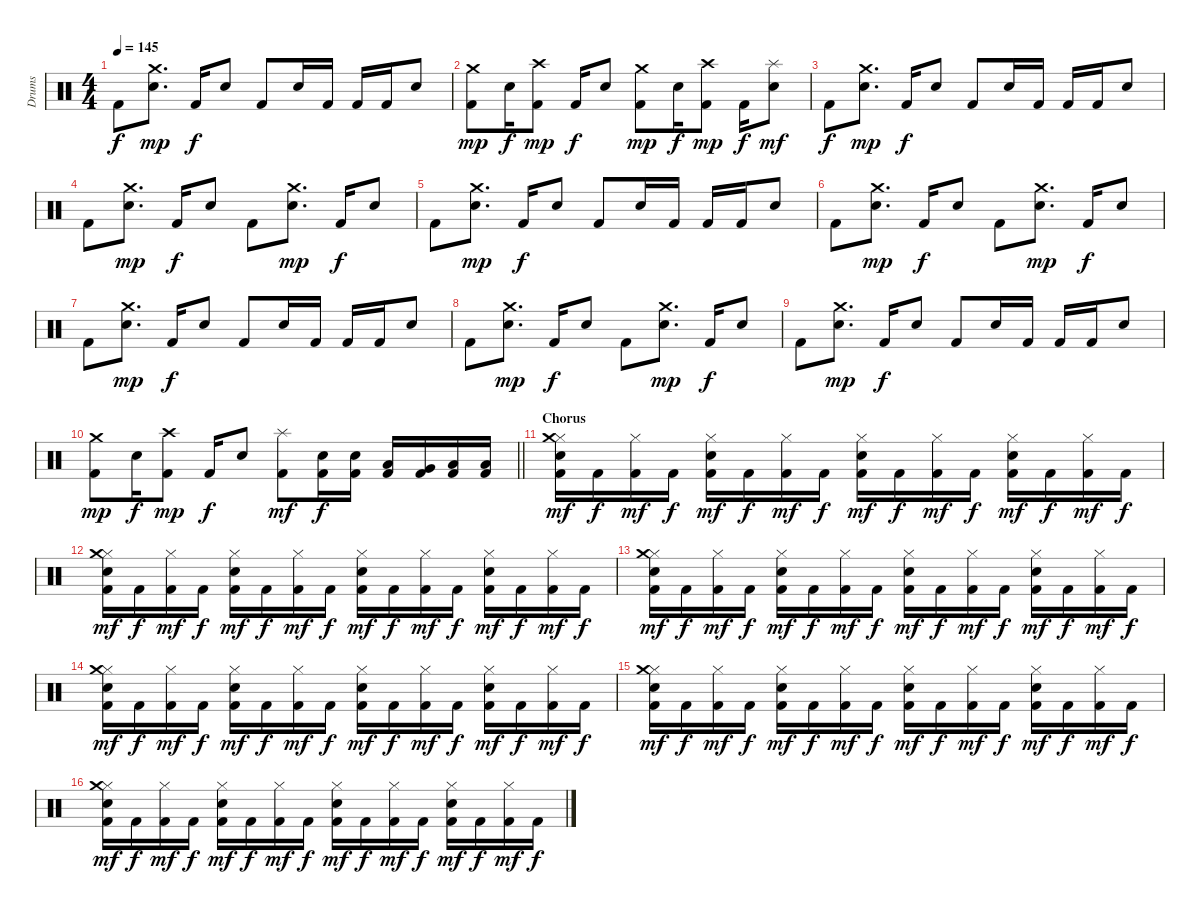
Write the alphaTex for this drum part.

\track ("Drums" "Drums") {instrument percussion}
\staff {score}
\articulation defaults
\ts (4 4)
\tempo 145
\clef neutral
\ks c "Kick (hit) 2".8{dy f}
("Crash medium (hit)" "Snare (hit) 2").8{d dy mp} "Kick (hit) 2".16{dy f} "Snare (hit) 2".8 "Kick (hit) 2".8 "Snare (hit) 2".16 "Kick (hit) 2".16 "Kick (hit) 2".16 "Kick (hit) 2".16 "Snare (hit) 2".8 |
("Crash medium (hit)" "Kick (hit) 2").8{dy mp} "Snare (hit) 2".16{dy f} ("Crash high (hit)" "Kick (hit) 2").8{dy mp} "Kick (hit) 2".16{dy f} "Snare (hit) 2".8 ("Crash medium (hit)" "Kick (hit) 2").8{dy mp} "Snare (hit) 2".16{dy f} ("Crash high (hit)" "Kick (hit) 2").8{dy mp} "Kick (hit) 2".16{dy f} ("Splash (hit)" "Snare (hit) 2").8{dy mf} |
"Kick (hit) 2".8{dy f} ("Crash medium (hit)" "Snare (hit) 2").8{d dy mp} "Kick (hit) 2".16{dy f} "Snare (hit) 2".8 "Kick (hit) 2".8 "Snare (hit) 2".16 "Kick (hit) 2".16 "Kick (hit) 2".16 "Kick (hit) 2".16 "Snare (hit) 2".8 |
"Kick (hit) 2".8 ("Crash medium (hit)" "Snare (hit) 2").8{d dy mp} "Kick (hit) 2".16{dy f} "Snare (hit) 2".8 "Kick (hit) 2".8 ("Crash medium (hit)" "Snare (hit) 2").8{d dy mp} "Kick (hit) 2".16{dy f} "Snare (hit) 2".8 |
"Kick (hit) 2".8 ("Crash medium (hit)" "Snare (hit) 2").8{d dy mp} "Kick (hit) 2".16{dy f} "Snare (hit) 2".8 "Kick (hit) 2".8 "Snare (hit) 2".16 "Kick (hit) 2".16 "Kick (hit) 2".16 "Kick (hit) 2".16 "Snare (hit) 2".8 |
"Kick (hit) 2".8 ("Crash medium (hit)" "Snare (hit) 2").8{d dy mp} "Kick (hit) 2".16{dy f} "Snare (hit) 2".8 "Kick (hit) 2".8 ("Crash medium (hit)" "Snare (hit) 2").8{d dy mp} "Kick (hit) 2".16{dy f} "Snare (hit) 2".8 |
"Kick (hit) 2".8 ("Crash medium (hit)" "Snare (hit) 2").8{d dy mp} "Kick (hit) 2".16{dy f} "Snare (hit) 2".8 "Kick (hit) 2".8 "Snare (hit) 2".16 "Kick (hit) 2".16 "Kick (hit) 2".16 "Kick (hit) 2".16 "Snare (hit) 2".8 |
"Kick (hit) 2".8 ("Crash medium (hit)" "Snare (hit) 2").8{d dy mp} "Kick (hit) 2".16{dy f} "Snare (hit) 2".8 "Kick (hit) 2".8 ("Crash medium (hit)" "Snare (hit) 2").8{d dy mp} "Kick (hit) 2".16{dy f} "Snare (hit) 2".8 |
"Kick (hit) 2".8 ("Crash medium (hit)" "Snare (hit) 2").8{d dy mp} "Kick (hit) 2".16{dy f} "Snare (hit) 2".8 "Kick (hit) 2".8 "Snare (hit) 2".16 "Kick (hit) 2".16 "Kick (hit) 2".16 "Kick (hit) 2".16 "Snare (hit) 2".8 |
\barLineRight lightlight
("Crash medium (hit)" "Kick (hit) 2").8{dy mp} "Snare (hit) 2".16{dy f} ("Crash high (hit)" "Kick (hit) 2").8{dy mp} "Kick (hit) 2".16{dy f} "Snare (hit) 2".8 ("Splash (hit)" "Kick (hit) 2").8{dy mf} ("Snare (hit) 2" "Kick (hit) 2").16{dy f} ("Snare (hit) 2" "Kick (hit) 2").16 ("Low Tom (hit)" "Kick (hit) 2").16 ("Very Low Tom (hit)" "Kick (hit) 2").16 ("Low Floor Tom (hit)" "Kick (hit) 2").16 ("Low Floor Tom (hit)" "Kick (hit) 2").16 |
\section ("" "Chorus")
("Hi-Hat (closed)" "Crash medium (hit)" "Snare (hit) 2" "Kick (hit) 2").16{dy mf} "Kick (hit) 2".16{dy f} ("Hi-Hat (closed)" "Kick (hit) 2").16{dy mf} "Kick (hit) 2".16{dy f} ("Hi-Hat (closed)" "Snare (hit) 2" "Kick (hit) 2").16{dy mf} "Kick (hit) 2".16{dy f} ("Hi-Hat (closed)" "Kick (hit) 2").16{dy mf} "Kick (hit) 2".16{dy f} ("Hi-Hat (closed)" "Snare (hit) 2" "Kick (hit) 2").16{dy mf} "Kick (hit) 2".16{dy f} ("Hi-Hat (closed)" "Kick (hit) 2").16{dy mf} "Kick (hit) 2".16{dy f} ("Hi-Hat (closed)" "Snare (hit) 2" "Kick (hit) 2").16{dy mf} "Kick (hit) 2".16{dy f} ("Hi-Hat (closed)" "Kick (hit) 2").16{dy mf} "Kick (hit) 2".16{dy f} |
("Hi-Hat (closed)" "Crash medium (hit)" "Snare (hit) 2" "Kick (hit) 2").16{dy mf} "Kick (hit) 2".16{dy f} ("Hi-Hat (closed)" "Kick (hit) 2").16{dy mf} "Kick (hit) 2".16{dy f} ("Hi-Hat (closed)" "Snare (hit) 2" "Kick (hit) 2").16{dy mf} "Kick (hit) 2".16{dy f} ("Hi-Hat (closed)" "Kick (hit) 2").16{dy mf} "Kick (hit) 2".16{dy f} ("Hi-Hat (closed)" "Snare (hit) 2" "Kick (hit) 2").16{dy mf} "Kick (hit) 2".16{dy f} ("Hi-Hat (closed)" "Kick (hit) 2").16{dy mf} "Kick (hit) 2".16{dy f} ("Hi-Hat (closed)" "Snare (hit) 2" "Kick (hit) 2").16{dy mf} "Kick (hit) 2".16{dy f} ("Hi-Hat (closed)" "Kick (hit) 2").16{dy mf} "Kick (hit) 2".16{dy f} |
("Hi-Hat (closed)" "Crash medium (hit)" "Snare (hit) 2" "Kick (hit) 2").16{dy mf} "Kick (hit) 2".16{dy f} ("Hi-Hat (closed)" "Kick (hit) 2").16{dy mf} "Kick (hit) 2".16{dy f} ("Hi-Hat (closed)" "Snare (hit) 2" "Kick (hit) 2").16{dy mf} "Kick (hit) 2".16{dy f} ("Hi-Hat (closed)" "Kick (hit) 2").16{dy mf} "Kick (hit) 2".16{dy f} ("Hi-Hat (closed)" "Snare (hit) 2" "Kick (hit) 2").16{dy mf} "Kick (hit) 2".16{dy f} ("Hi-Hat (closed)" "Kick (hit) 2").16{dy mf} "Kick (hit) 2".16{dy f} ("Hi-Hat (closed)" "Snare (hit) 2" "Kick (hit) 2").16{dy mf} "Kick (hit) 2".16{dy f} ("Hi-Hat (closed)" "Kick (hit) 2").16{dy mf} "Kick (hit) 2".16{dy f} |
("Hi-Hat (closed)" "Crash medium (hit)" "Snare (hit) 2" "Kick (hit) 2").16{dy mf} "Kick (hit) 2".16{dy f} ("Hi-Hat (closed)" "Kick (hit) 2").16{dy mf} "Kick (hit) 2".16{dy f} ("Hi-Hat (closed)" "Snare (hit) 2" "Kick (hit) 2").16{dy mf} "Kick (hit) 2".16{dy f} ("Hi-Hat (closed)" "Kick (hit) 2").16{dy mf} "Kick (hit) 2".16{dy f} ("Hi-Hat (closed)" "Snare (hit) 2" "Kick (hit) 2").16{dy mf} "Kick (hit) 2".16{dy f} ("Hi-Hat (closed)" "Kick (hit) 2").16{dy mf} "Kick (hit) 2".16{dy f} ("Hi-Hat (closed)" "Snare (hit) 2" "Kick (hit) 2").16{dy mf} "Kick (hit) 2".16{dy f} ("Hi-Hat (closed)" "Kick (hit) 2").16{dy mf} "Kick (hit) 2".16{dy f} |
("Hi-Hat (closed)" "Crash medium (hit)" "Snare (hit) 2" "Kick (hit) 2").16{dy mf} "Kick (hit) 2".16{dy f} ("Hi-Hat (closed)" "Kick (hit) 2").16{dy mf} "Kick (hit) 2".16{dy f} ("Hi-Hat (closed)" "Snare (hit) 2" "Kick (hit) 2").16{dy mf} "Kick (hit) 2".16{dy f} ("Hi-Hat (closed)" "Kick (hit) 2").16{dy mf} "Kick (hit) 2".16{dy f} ("Hi-Hat (closed)" "Snare (hit) 2" "Kick (hit) 2").16{dy mf} "Kick (hit) 2".16{dy f} ("Hi-Hat (closed)" "Kick (hit) 2").16{dy mf} "Kick (hit) 2".16{dy f} ("Hi-Hat (closed)" "Snare (hit) 2" "Kick (hit) 2").16{dy mf} "Kick (hit) 2".16{dy f} ("Hi-Hat (closed)" "Kick (hit) 2").16{dy mf} "Kick (hit) 2".16{dy f} |
("Hi-Hat (closed)" "Crash medium (hit)" "Snare (hit) 2" "Kick (hit) 2").16{dy mf} "Kick (hit) 2".16{dy f} ("Hi-Hat (closed)" "Kick (hit) 2").16{dy mf} "Kick (hit) 2".16{dy f} ("Hi-Hat (closed)" "Snare (hit) 2" "Kick (hit) 2").16{dy mf} "Kick (hit) 2".16{dy f} ("Hi-Hat (closed)" "Kick (hit) 2").16{dy mf} "Kick (hit) 2".16{dy f} ("Hi-Hat (closed)" "Snare (hit) 2" "Kick (hit) 2").16{dy mf} "Kick (hit) 2".16{dy f} ("Hi-Hat (closed)" "Kick (hit) 2").16{dy mf} "Kick (hit) 2".16{dy f} ("Hi-Hat (closed)" "Snare (hit) 2" "Kick (hit) 2").16{dy mf} "Kick (hit) 2".16{dy f} ("Hi-Hat (closed)" "Kick (hit) 2").16{dy mf} "Kick (hit) 2".16{dy f}
